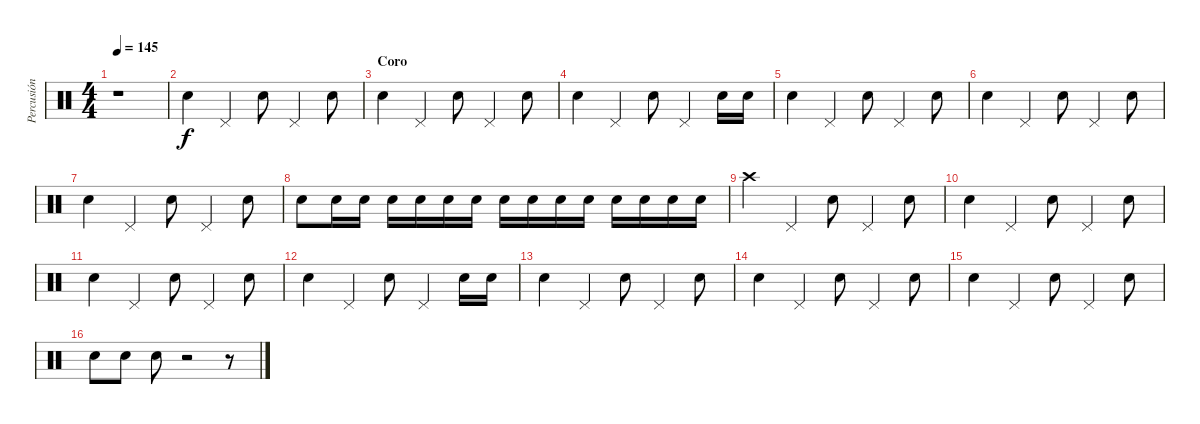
\track ("Percusión" "Percusión") {instrument percussion}
\staff {score}
\articulation defaults
\ts (4 4)
\tempo 145
\clef neutral
\ks c
r.1{dy f} |
"Electric Snare (hit)".4 "Pedal Hi-Hat (hit)".4 "Electric Snare (hit)".8 "Pedal Hi-Hat (hit)".4 "Electric Snare (hit)".8 |
\section ("" "Coro")
"Electric Snare (hit)".4 "Pedal Hi-Hat (hit)".4 "Electric Snare (hit)".8 "Pedal Hi-Hat (hit)".4 "Electric Snare (hit)".8 |
"Electric Snare (hit)".4 "Pedal Hi-Hat (hit)".4 "Electric Snare (hit)".8 "Pedal Hi-Hat (hit)".4 "Electric Snare (hit)".16 "Electric Snare (hit)".16 |
"Electric Snare (hit)".4 "Pedal Hi-Hat (hit)".4 "Electric Snare (hit)".8 "Pedal Hi-Hat (hit)".4 "Electric Snare (hit)".8 |
"Electric Snare (hit)".4 "Pedal Hi-Hat (hit)".4 "Electric Snare (hit)".8 "Pedal Hi-Hat (hit)".4 "Electric Snare (hit)".8 |
"Electric Snare (hit)".4 "Pedal Hi-Hat (hit)".4 "Electric Snare (hit)".8 "Pedal Hi-Hat (hit)".4 "Electric Snare (hit)".8 |
"Electric Snare (hit)".8 "Electric Snare (hit)".16 "Electric Snare (hit)".16 "Electric Snare (hit)".16 "Electric Snare (hit)".16 "Electric Snare (hit)".16 "Electric Snare (hit)".16 "Electric Snare (hit)".16 "Electric Snare (hit)".16 "Electric Snare (hit)".16 "Electric Snare (hit)".16 "Electric Snare (hit)".16 "Electric Snare (hit)".16 "Electric Snare (hit)".16 "Electric Snare (hit)".16 |
"Crash high (hit)".4 "Pedal Hi-Hat (hit)".4 "Electric Snare (hit)".8 "Pedal Hi-Hat (hit)".4 "Electric Snare (hit)".8 |
"Electric Snare (hit)".4 "Pedal Hi-Hat (hit)".4 "Electric Snare (hit)".8 "Pedal Hi-Hat (hit)".4 "Electric Snare (hit)".8 |
"Electric Snare (hit)".4 "Pedal Hi-Hat (hit)".4 "Electric Snare (hit)".8 "Pedal Hi-Hat (hit)".4 "Electric Snare (hit)".8 |
"Electric Snare (hit)".4 "Pedal Hi-Hat (hit)".4 "Electric Snare (hit)".8 "Pedal Hi-Hat (hit)".4 "Electric Snare (hit)".16 "Electric Snare (hit)".16 |
"Electric Snare (hit)".4 "Pedal Hi-Hat (hit)".4 "Electric Snare (hit)".8 "Pedal Hi-Hat (hit)".4 "Electric Snare (hit)".8 |
"Electric Snare (hit)".4 "Pedal Hi-Hat (hit)".4 "Electric Snare (hit)".8 "Pedal Hi-Hat (hit)".4 "Electric Snare (hit)".8 |
"Electric Snare (hit)".4 "Pedal Hi-Hat (hit)".4 "Electric Snare (hit)".8 "Pedal Hi-Hat (hit)".4 "Electric Snare (hit)".8 |
"Electric Snare (hit)".8 "Electric Snare (hit)".8 "Electric Snare (hit)".8 r.2 r.8
